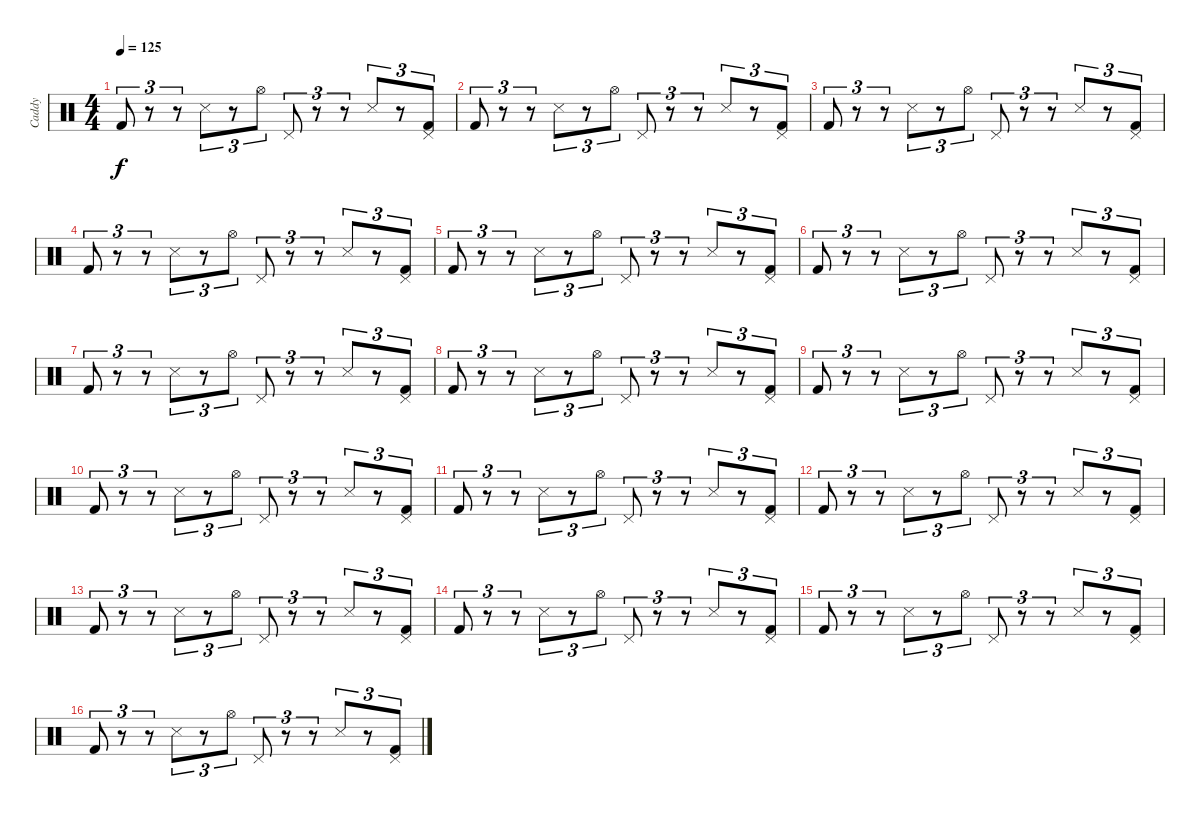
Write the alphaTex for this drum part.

\track ("Caddy" "Caddy") {instrument percussion}
\staff {score}
\articulation defaults
\ts (4 4)
\tempo 125
\clef neutral
\ks c "Kick (hit) 2".8{tu (3 2) dy f}
r.8{tu (3 2)} r.8{tu (3 2)} "Snare (side stick) 3".8{tu (3 2)} r.8{tu (3 2)} "Hi-Hat (open)".8{tu (3 2)} "Pedal Hi-Hat (hit)".8{tu (3 2)} r.8{tu (3 2)} r.8{tu (3 2)} "Snare (side stick) 3".8{tu (3 2)} r.8{tu (3 2)} ("Pedal Hi-Hat (hit)" "Kick (hit) 2").8{tu (3 2)} |
"Kick (hit) 2".8{tu (3 2)} r.8{tu (3 2)} r.8{tu (3 2)} "Snare (side stick) 3".8{tu (3 2)} r.8{tu (3 2)} "Hi-Hat (open)".8{tu (3 2)} "Pedal Hi-Hat (hit)".8{tu (3 2)} r.8{tu (3 2)} r.8{tu (3 2)} "Snare (side stick) 3".8{tu (3 2)} r.8{tu (3 2)} ("Pedal Hi-Hat (hit)" "Kick (hit) 2").8{tu (3 2)} |
"Kick (hit) 2".8{tu (3 2)} r.8{tu (3 2)} r.8{tu (3 2)} "Snare (side stick) 3".8{tu (3 2)} r.8{tu (3 2)} "Hi-Hat (open)".8{tu (3 2)} "Pedal Hi-Hat (hit)".8{tu (3 2)} r.8{tu (3 2)} r.8{tu (3 2)} "Snare (side stick) 3".8{tu (3 2)} r.8{tu (3 2)} ("Pedal Hi-Hat (hit)" "Kick (hit) 2").8{tu (3 2)} |
"Kick (hit) 2".8{tu (3 2)} r.8{tu (3 2)} r.8{tu (3 2)} "Snare (side stick) 3".8{tu (3 2)} r.8{tu (3 2)} "Hi-Hat (open)".8{tu (3 2)} "Pedal Hi-Hat (hit)".8{tu (3 2)} r.8{tu (3 2)} r.8{tu (3 2)} "Snare (side stick) 3".8{tu (3 2)} r.8{tu (3 2)} ("Pedal Hi-Hat (hit)" "Kick (hit) 2").8{tu (3 2)} |
"Kick (hit) 2".8{tu (3 2)} r.8{tu (3 2)} r.8{tu (3 2)} "Snare (side stick) 3".8{tu (3 2)} r.8{tu (3 2)} "Hi-Hat (open)".8{tu (3 2)} "Pedal Hi-Hat (hit)".8{tu (3 2)} r.8{tu (3 2)} r.8{tu (3 2)} "Snare (side stick) 3".8{tu (3 2)} r.8{tu (3 2)} ("Pedal Hi-Hat (hit)" "Kick (hit) 2").8{tu (3 2)} |
"Kick (hit) 2".8{tu (3 2)} r.8{tu (3 2)} r.8{tu (3 2)} "Snare (side stick) 3".8{tu (3 2)} r.8{tu (3 2)} "Hi-Hat (open)".8{tu (3 2)} "Pedal Hi-Hat (hit)".8{tu (3 2)} r.8{tu (3 2)} r.8{tu (3 2)} "Snare (side stick) 3".8{tu (3 2)} r.8{tu (3 2)} ("Pedal Hi-Hat (hit)" "Kick (hit) 2").8{tu (3 2)} |
"Kick (hit) 2".8{tu (3 2)} r.8{tu (3 2)} r.8{tu (3 2)} "Snare (side stick) 3".8{tu (3 2)} r.8{tu (3 2)} "Hi-Hat (open)".8{tu (3 2)} "Pedal Hi-Hat (hit)".8{tu (3 2)} r.8{tu (3 2)} r.8{tu (3 2)} "Snare (side stick) 3".8{tu (3 2)} r.8{tu (3 2)} ("Pedal Hi-Hat (hit)" "Kick (hit) 2").8{tu (3 2)} |
"Kick (hit) 2".8{tu (3 2)} r.8{tu (3 2)} r.8{tu (3 2)} "Snare (side stick) 3".8{tu (3 2)} r.8{tu (3 2)} "Hi-Hat (open)".8{tu (3 2)} "Pedal Hi-Hat (hit)".8{tu (3 2)} r.8{tu (3 2)} r.8{tu (3 2)} "Snare (side stick) 3".8{tu (3 2)} r.8{tu (3 2)} ("Pedal Hi-Hat (hit)" "Kick (hit) 2").8{tu (3 2)} |
"Kick (hit) 2".8{tu (3 2)} r.8{tu (3 2)} r.8{tu (3 2)} "Snare (side stick) 3".8{tu (3 2)} r.8{tu (3 2)} "Hi-Hat (open)".8{tu (3 2)} "Pedal Hi-Hat (hit)".8{tu (3 2)} r.8{tu (3 2)} r.8{tu (3 2)} "Snare (side stick) 3".8{tu (3 2)} r.8{tu (3 2)} ("Pedal Hi-Hat (hit)" "Kick (hit) 2").8{tu (3 2)} |
"Kick (hit) 2".8{tu (3 2)} r.8{tu (3 2)} r.8{tu (3 2)} "Snare (side stick) 3".8{tu (3 2)} r.8{tu (3 2)} "Hi-Hat (open)".8{tu (3 2)} "Pedal Hi-Hat (hit)".8{tu (3 2)} r.8{tu (3 2)} r.8{tu (3 2)} "Snare (side stick) 3".8{tu (3 2)} r.8{tu (3 2)} ("Pedal Hi-Hat (hit)" "Kick (hit) 2").8{tu (3 2)} |
"Kick (hit) 2".8{tu (3 2)} r.8{tu (3 2)} r.8{tu (3 2)} "Snare (side stick) 3".8{tu (3 2)} r.8{tu (3 2)} "Hi-Hat (open)".8{tu (3 2)} "Pedal Hi-Hat (hit)".8{tu (3 2)} r.8{tu (3 2)} r.8{tu (3 2)} "Snare (side stick) 3".8{tu (3 2)} r.8{tu (3 2)} ("Pedal Hi-Hat (hit)" "Kick (hit) 2").8{tu (3 2)} |
"Kick (hit) 2".8{tu (3 2)} r.8{tu (3 2)} r.8{tu (3 2)} "Snare (side stick) 3".8{tu (3 2)} r.8{tu (3 2)} "Hi-Hat (open)".8{tu (3 2)} "Pedal Hi-Hat (hit)".8{tu (3 2)} r.8{tu (3 2)} r.8{tu (3 2)} "Snare (side stick) 3".8{tu (3 2)} r.8{tu (3 2)} ("Pedal Hi-Hat (hit)" "Kick (hit) 2").8{tu (3 2)} |
"Kick (hit) 2".8{tu (3 2)} r.8{tu (3 2)} r.8{tu (3 2)} "Snare (side stick) 3".8{tu (3 2)} r.8{tu (3 2)} "Hi-Hat (open)".8{tu (3 2)} "Pedal Hi-Hat (hit)".8{tu (3 2)} r.8{tu (3 2)} r.8{tu (3 2)} "Snare (side stick) 3".8{tu (3 2)} r.8{tu (3 2)} ("Pedal Hi-Hat (hit)" "Kick (hit) 2").8{tu (3 2)} |
"Kick (hit) 2".8{tu (3 2)} r.8{tu (3 2)} r.8{tu (3 2)} "Snare (side stick) 3".8{tu (3 2)} r.8{tu (3 2)} "Hi-Hat (open)".8{tu (3 2)} "Pedal Hi-Hat (hit)".8{tu (3 2)} r.8{tu (3 2)} r.8{tu (3 2)} "Snare (side stick) 3".8{tu (3 2)} r.8{tu (3 2)} ("Pedal Hi-Hat (hit)" "Kick (hit) 2").8{tu (3 2)} |
"Kick (hit) 2".8{tu (3 2)} r.8{tu (3 2)} r.8{tu (3 2)} "Snare (side stick) 3".8{tu (3 2)} r.8{tu (3 2)} "Hi-Hat (open)".8{tu (3 2)} "Pedal Hi-Hat (hit)".8{tu (3 2)} r.8{tu (3 2)} r.8{tu (3 2)} "Snare (side stick) 3".8{tu (3 2)} r.8{tu (3 2)} ("Pedal Hi-Hat (hit)" "Kick (hit) 2").8{tu (3 2)} |
"Kick (hit) 2".8{tu (3 2)} r.8{tu (3 2)} r.8{tu (3 2)} "Snare (side stick) 3".8{tu (3 2)} r.8{tu (3 2)} "Hi-Hat (open)".8{tu (3 2)} "Pedal Hi-Hat (hit)".8{tu (3 2)} r.8{tu (3 2)} r.8{tu (3 2)} "Snare (side stick) 3".8{tu (3 2)} r.8{tu (3 2)} ("Pedal Hi-Hat (hit)" "Kick (hit) 2").8{tu (3 2)}
